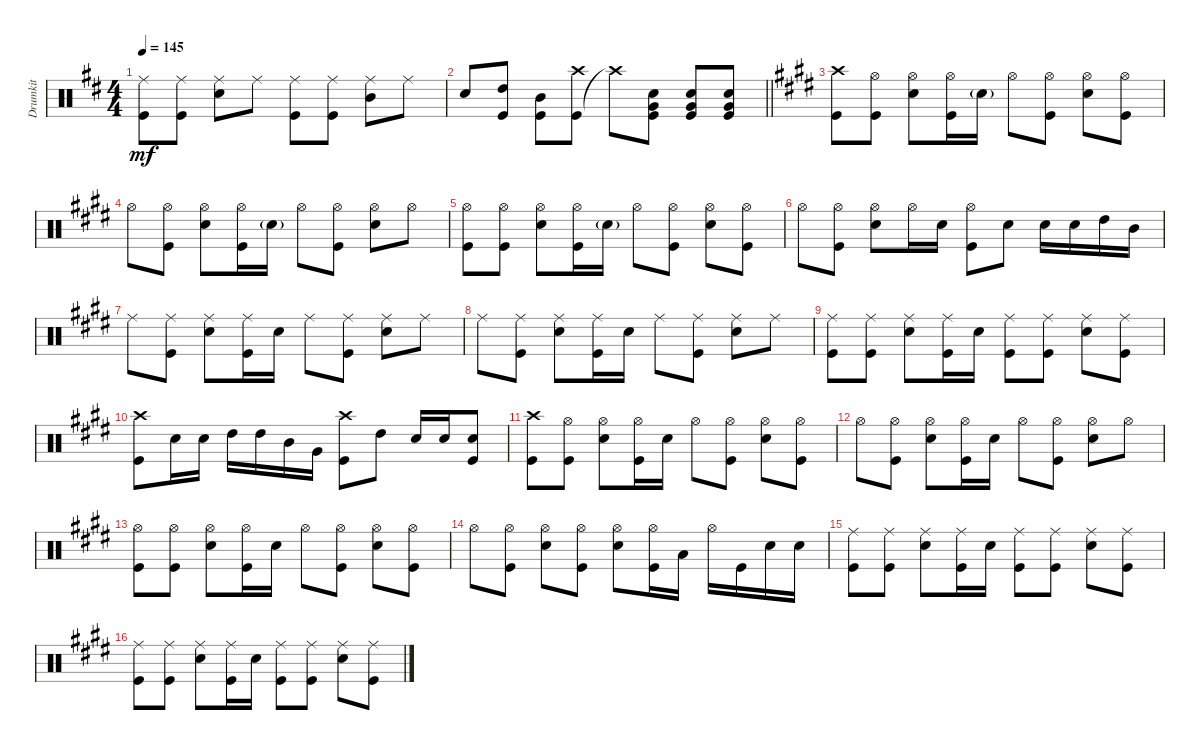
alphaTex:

\track ("Drumkit" "Drumkit") {instrument percussion}
\staff {score}
\articulation defaults
\ts (4 4)
\tempo 145
\clef neutral
\ks d
("Kick (hit)" "Ride (middle)").8{dy mf} ("Kick (hit)" "Ride (middle)").8 ("Snare (hit) 2" "Ride (middle)").8 "Ride (middle)".8 ("Kick (hit)" "Ride (middle)").8 ("Kick (hit)" "Ride (middle)").8 ("Mid Tom (hit)" "Ride (middle)").8 "Ride (middle)".8 |
\barLineRight lightlight "Snare (hit) 2".8
("High Tom (hit)" "Kick (hit)").8 ("Mid Tom (hit)" "Kick (hit)").8 ("Kick (hit)" "Crash high (hit)").8 "Crash high (hit)"{t}.8 ("Snare (hit) 2" "Kick (hit)" "Very Low Tom (hit)").8 ("Snare (hit) 2" "Very Low Tom (hit)" "Kick (hit)").8 ("Snare (hit) 2" "Very Low Tom (hit)" "Kick (hit)").8 |
\ks e
("Kick (hit)" "Crash high (hit)").8 ("Hi-Hat (open)" "Kick (hit)").8 ("Hi-Hat (open)" "Snare (hit) 2").8 ("Hi-Hat (open)" "Kick (hit)").16 "Snare (hit) 2"{g}.16 "Hi-Hat (open)".8 ("Hi-Hat (open)" "Kick (hit)").8 ("Hi-Hat (open)" "Snare (hit) 2").8 ("Hi-Hat (open)" "Kick (hit)").8 |
"Hi-Hat (open)".8 ("Hi-Hat (open)" "Kick (hit)").8 ("Hi-Hat (open)" "Snare (hit) 2").8 ("Hi-Hat (open)" "Kick (hit)").16 "Snare (hit) 2"{g}.16 "Hi-Hat (open)".8 ("Hi-Hat (open)" "Kick (hit)").8 ("Hi-Hat (open)" "Snare (hit) 2").8 "Hi-Hat (open)".8 |
("Kick (hit)" "Hi-Hat (open)").8 ("Hi-Hat (open)" "Kick (hit)").8 ("Hi-Hat (open)" "Snare (hit) 2").8 ("Hi-Hat (open)" "Kick (hit)").16 "Snare (hit) 2"{g}.16 "Hi-Hat (open)".8 ("Hi-Hat (open)" "Kick (hit)").8 ("Hi-Hat (open)" "Snare (hit) 2").8 ("Hi-Hat (open)" "Kick (hit)").8 |
"Hi-Hat (open)".8 ("Hi-Hat (open)" "Kick (hit)").8 ("Hi-Hat (open)" "Snare (hit) 2").8 "Hi-Hat (open)".16 "Snare (hit) 2".16 ("Hi-Hat (open)" "Kick (hit)").8 "Snare (hit) 2".8 "Snare (hit) 2".16 "Snare (hit) 2".16 "High Tom (hit)".16 "Mid Tom (hit)".16 |
"Ride (middle)".8 ("Kick (hit)" "Ride (middle)").8 ("Snare (hit) 2" "Ride (middle)").8 ("Kick (hit)" "Ride (middle)").16 "Snare (hit) 2".16 "Ride (middle)".8 ("Kick (hit)" "Ride (middle)").8 ("Snare (hit) 2" "Ride (middle)").8 "Ride (middle)".8 |
"Ride (middle)".8 ("Kick (hit)" "Ride (middle)").8 ("Snare (hit) 2" "Ride (middle)").8 ("Kick (hit)" "Ride (middle)").16 "Snare (hit) 2".16 "Ride (middle)".8 ("Kick (hit)" "Ride (middle)").8 ("Snare (hit) 2" "Ride (middle)").8 "Ride (middle)".8 |
("Kick (hit)" "Ride (middle)").8 ("Kick (hit)" "Ride (middle)").8 ("Snare (hit) 2" "Ride (middle)").8 ("Kick (hit)" "Ride (middle)").16 "Snare (hit) 2".16 ("Kick (hit)" "Ride (middle)").8 ("Kick (hit)" "Ride (middle)").8 ("Snare (hit) 2" "Ride (middle)").8 ("Kick (hit)" "Ride (middle)").8 |
("Kick (hit)" "Crash high (hit)").8 "Snare (hit) 2".16 "Snare (hit) 2".16 "High Tom (hit)".16 "High Tom (hit)".16 "Mid Tom (hit)".16 "Very Low Tom (hit)".16 ("Kick (hit)" "Crash high (hit)").8 "High Tom (hit)".8 "Snare (hit) 2".16 "Snare (hit) 2".16 ("Snare (hit) 2" "Kick (hit)").8 |
("Kick (hit)" "Crash high (hit)").8 ("Kick (hit)" "Hi-Hat (open)").8 ("Snare (hit) 2" "Hi-Hat (open)").8 ("Kick (hit)" "Hi-Hat (open)").16 "Snare (hit) 2".16 "Hi-Hat (open)".8 ("Kick (hit)" "Hi-Hat (open)").8 ("Snare (hit) 2" "Hi-Hat (open)").8 ("Kick (hit)" "Hi-Hat (open)").8 |
"Hi-Hat (open)".8 ("Hi-Hat (open)" "Kick (hit)").8 ("Hi-Hat (open)" "Snare (hit) 2").8 ("Hi-Hat (open)" "Kick (hit)").16 "Snare (hit) 2".16 "Hi-Hat (open)".8 ("Hi-Hat (open)" "Kick (hit)").8 ("Hi-Hat (open)" "Snare (hit) 2").8 "Hi-Hat (open)".8 |
("Kick (hit)" "Hi-Hat (open)").8 ("Kick (hit)" "Hi-Hat (open)").8 ("Snare (hit) 2" "Hi-Hat (open)").8 ("Kick (hit)" "Hi-Hat (open)").16 "Snare (hit) 2".16 "Hi-Hat (open)".8 ("Kick (hit)" "Hi-Hat (open)").8 ("Snare (hit) 2" "Hi-Hat (open)").8 ("Kick (hit)" "Hi-Hat (open)").8 |
"Hi-Hat (open)".8 ("Hi-Hat (open)" "Kick (hit)").8 ("Hi-Hat (open)" "Snare (hit) 2").8 ("Hi-Hat (open)" "Kick (hit)").8 ("Hi-Hat (open)" "Snare (hit) 2").8 ("Hi-Hat (open)" "Kick (hit)").16 "Low Tom (hit)".16 "Hi-Hat (open)".16 "Kick (hit)".16 "Snare (hit) 2".16 "Snare (hit) 2".16 |
("Kick (hit)" "Ride (middle)").8 ("Kick (hit)" "Ride (middle)").8 ("Snare (hit) 2" "Ride (middle)").8 ("Kick (hit)" "Ride (middle)").16 "Snare (hit) 2".16 ("Kick (hit)" "Ride (middle)").8 ("Kick (hit)" "Ride (middle)").8 ("Snare (hit) 2" "Ride (middle)").8 ("Kick (hit)" "Ride (middle)").8 |
("Kick (hit)" "Ride (middle)").8 ("Kick (hit)" "Ride (middle)").8 ("Snare (hit) 2" "Ride (middle)").8 ("Kick (hit)" "Ride (middle)").16 "Snare (hit) 2".16 ("Kick (hit)" "Ride (middle)").8 ("Kick (hit)" "Ride (middle)").8 ("Snare (hit) 2" "Ride (middle)").8 ("Kick (hit)" "Ride (middle)").8
